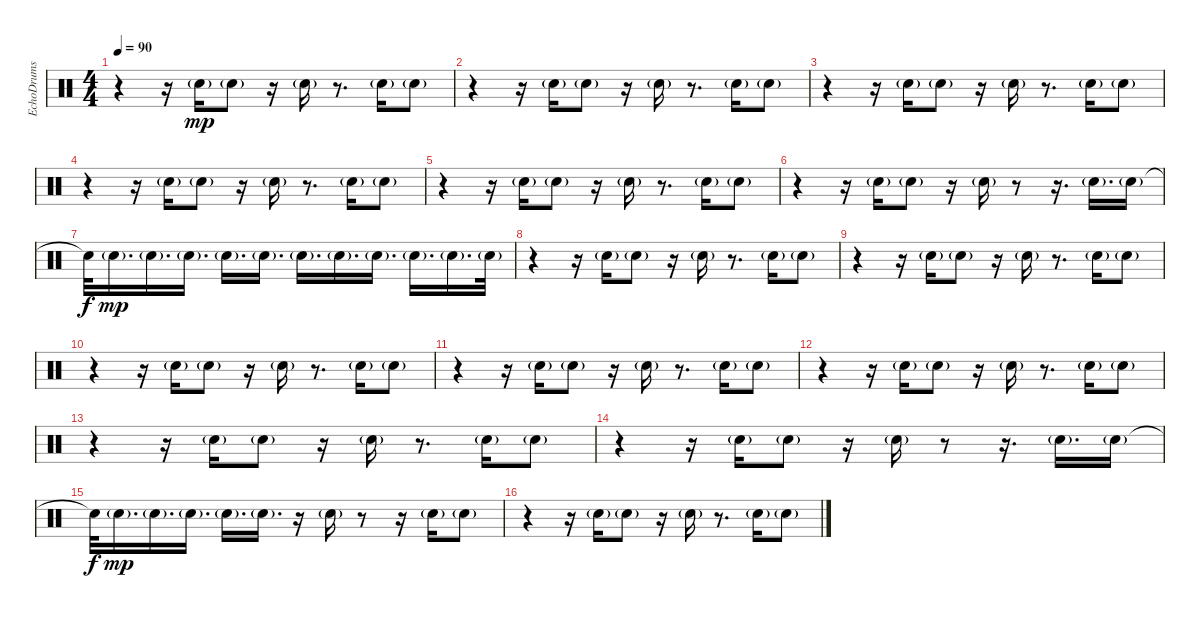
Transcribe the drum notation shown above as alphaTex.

\track ("EchoDrums" "EchoDrums") {instrument percussion}
\staff {score}
\articulation defaults
\ts (4 4)
\tempo 90
\clef neutral
\ks c
r.4{dy mp} r.16 "Electric Snare (hit)"{g}.16 "Electric Snare (hit)"{g}.8 r.16 "Electric Snare (hit)"{g}.16 r.8{d} "Electric Snare (hit)"{g}.16 "Electric Snare (hit)"{g}.8 |
r.4 r.16 "Electric Snare (hit)"{g}.16 "Electric Snare (hit)"{g}.8 r.16 "Electric Snare (hit)"{g}.16 r.8{d} "Electric Snare (hit)"{g}.16 "Electric Snare (hit)"{g}.8 |
r.4 r.16 "Electric Snare (hit)"{g}.16 "Electric Snare (hit)"{g}.8 r.16 "Electric Snare (hit)"{g}.16 r.8{d} "Electric Snare (hit)"{g}.16 "Electric Snare (hit)"{g}.8 |
r.4 r.16 "Electric Snare (hit)"{g}.16 "Electric Snare (hit)"{g}.8 r.16 "Electric Snare (hit)"{g}.16 r.8{d} "Electric Snare (hit)"{g}.16 "Electric Snare (hit)"{g}.8 |
r.4 r.16 "Electric Snare (hit)"{g}.16 "Electric Snare (hit)"{g}.8 r.16 "Electric Snare (hit)"{g}.16 r.8{d} "Electric Snare (hit)"{g}.16 "Electric Snare (hit)"{g}.8 |
r.4 r.16 "Electric Snare (hit)"{g}.16 "Electric Snare (hit)"{g}.8 r.16 "Electric Snare (hit)"{g}.16 r.8 r.16{d} "Electric Snare (hit)"{g}.16{d} "Electric Snare (hit)"{g}.16 |
"Snare (hit)"{t}.32{dy f} "Electric Snare (hit)"{g}.16{d dy mp} "Electric Snare (hit)"{g}.16{d} "Electric Snare (hit)"{g}.16{d} "Electric Snare (hit)"{g}.16{d} "Electric Snare (hit)"{g}.16{d} "Electric Snare (hit)"{g}.16{d} "Electric Snare (hit)"{g}.16{d} "Electric Snare (hit)"{g}.16{d} "Electric Snare (hit)"{g}.16{d} "Electric Snare (hit)"{g}.16{d} "Electric Snare (hit)"{g}.32 |
r.4 r.16 "Electric Snare (hit)"{g}.16 "Electric Snare (hit)"{g}.8 r.16 "Electric Snare (hit)"{g}.16 r.8{d} "Electric Snare (hit)"{g}.16 "Electric Snare (hit)"{g}.8 |
r.4 r.16 "Electric Snare (hit)"{g}.16 "Electric Snare (hit)"{g}.8 r.16 "Electric Snare (hit)"{g}.16 r.8{d} "Electric Snare (hit)"{g}.16 "Electric Snare (hit)"{g}.8 |
r.4 r.16 "Electric Snare (hit)"{g}.16 "Electric Snare (hit)"{g}.8 r.16 "Electric Snare (hit)"{g}.16 r.8{d} "Electric Snare (hit)"{g}.16 "Electric Snare (hit)"{g}.8 |
r.4 r.16 "Electric Snare (hit)"{g}.16 "Electric Snare (hit)"{g}.8 r.16 "Electric Snare (hit)"{g}.16 r.8{d} "Electric Snare (hit)"{g}.16 "Electric Snare (hit)"{g}.8 |
r.4 r.16 "Electric Snare (hit)"{g}.16 "Electric Snare (hit)"{g}.8 r.16 "Electric Snare (hit)"{g}.16 r.8{d} "Electric Snare (hit)"{g}.16 "Electric Snare (hit)"{g}.8 |
r.4 r.16 "Electric Snare (hit)"{g}.16 "Electric Snare (hit)"{g}.8 r.16 "Electric Snare (hit)"{g}.16 r.8{d} "Electric Snare (hit)"{g}.16 "Electric Snare (hit)"{g}.8 |
r.4 r.16 "Electric Snare (hit)"{g}.16 "Electric Snare (hit)"{g}.8 r.16 "Electric Snare (hit)"{g}.16 r.8 r.16{d} "Electric Snare (hit)"{g}.16{d} "Electric Snare (hit)"{g}.16 |
"Snare (hit)"{t}.32{dy f} "Electric Snare (hit)"{g}.16{d dy mp} "Electric Snare (hit)"{g}.16{d} "Electric Snare (hit)"{g}.16{d} "Electric Snare (hit)"{g}.16{d} "Electric Snare (hit)"{g}.16{d} r.16 "Electric Snare (hit)"{g}.16 r.8 r.16 "Electric Snare (hit)"{g}.16 "Electric Snare (hit)"{g}.8 |
r.4 r.16 "Electric Snare (hit)"{g}.16 "Electric Snare (hit)"{g}.8 r.16 "Electric Snare (hit)"{g}.16 r.8{d} "Electric Snare (hit)"{g}.16 "Electric Snare (hit)"{g}.8
